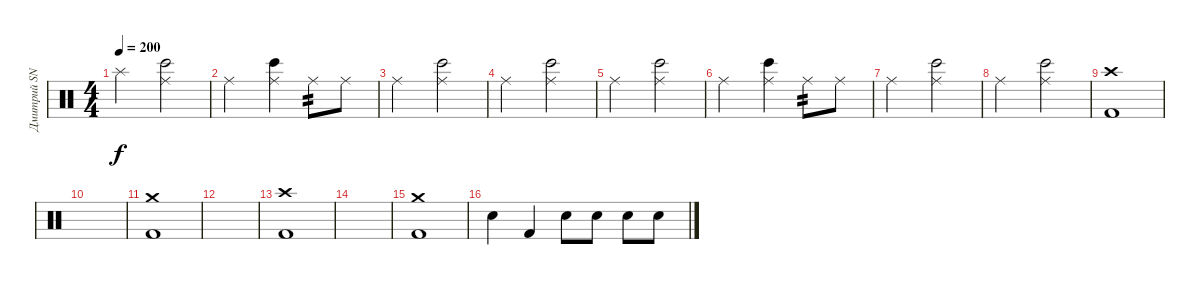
\track ("Дмитрий SNAKE Хакимов" "Дмитрий SN") {instrument percussion}
\staff {score}
\articulation defaults
\ts (4 4)
\tempo 200
\clef neutral
\ks c "Splash (hit)".2{dy f}
("Ride (middle)" "Bongo High (hit)").2 |
"Ride (middle)".2 ("Ride (middle)" "Bongo High (hit)").4 "Ride (middle)".8{tp 2} "Ride (middle)".8 |
"Ride (middle)".2 ("Ride (middle)" "Bongo High (hit)").2 |
"Ride (middle)".2 ("Ride (middle)" "Bongo High (hit)").2 |
"Ride (middle)".2 ("Ride (middle)" "Bongo High (hit)").2 |
"Ride (middle)".2 ("Ride (middle)" "Bongo High (hit)").4 "Ride (middle)".8{tp 2} "Ride (middle)".8 |
"Ride (middle)".2 ("Ride (middle)" "Bongo High (hit)").2 |
"Ride (middle)".2 ("Ride (middle)" "Bongo High (hit)").2 |
("Crash high (hit)" "Kick (hit) 2").1 |
|
("Crash medium (hit)" "Kick (hit) 2").1 |
|
("Crash high (hit)" "Kick (hit) 2").1 |
|
("Crash medium (hit)" "Kick (hit) 2").1 |
"Electric Snare (hit)".4 "Kick (hit) 2".4 "Electric Snare (hit)".8 "Electric Snare (hit)".8 "Electric Snare (hit)".8 "Electric Snare (hit)".8
